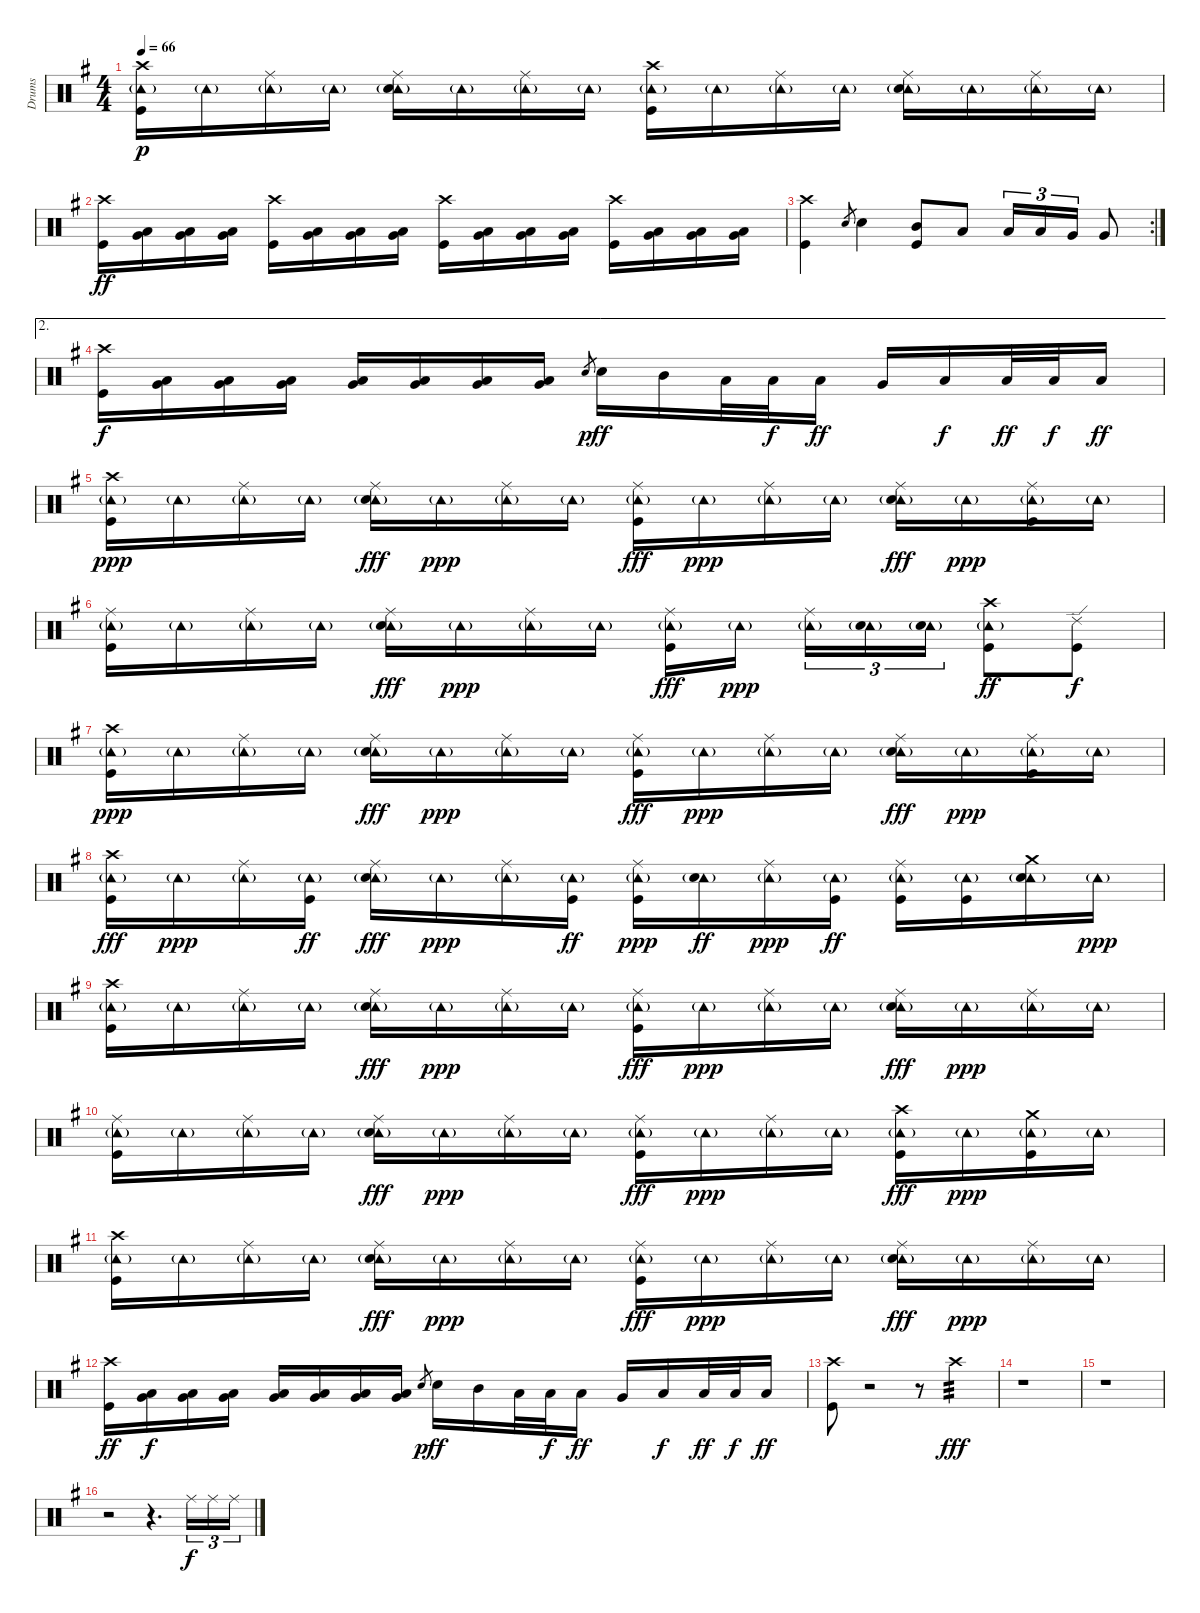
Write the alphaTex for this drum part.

\track ("Drums" "Drums") {instrument percussion}
\staff {score}
\articulation defaults
\ts (4 4)
\tempo 66
\clef neutral
\ks g
("Crash high (hit)" "Tambourine (hit)"{g} "Kick (hit)").16{dy p} "Tambourine (hit)"{g}.16 ("Ride (middle)" "Tambourine (hit)"{g}).16 "Tambourine (hit)"{g}.16 ("Ride (middle)" "Tambourine (hit)"{g} "Snare (hit) 2").16 "Tambourine (hit)"{g}.16 ("Ride (middle)" "Tambourine (hit)"{g}).16 "Tambourine (hit)"{g}.16 ("Crash high (hit)" "Tambourine (hit)"{g} "Kick (hit)").16 "Tambourine (hit)"{g}.16 ("Ride (middle)" "Tambourine (hit)"{g}).16 "Tambourine (hit)"{g}.16 ("Ride (middle)" "Tambourine (hit)"{g} "Snare (hit) 2").16 "Tambourine (hit)"{g}.16 ("Ride (middle)" "Tambourine (hit)"{g}).16 "Tambourine (hit)"{g}.16 |
("Crash high (hit)" "Kick (hit)").16{dy ff} ("Very Low Tom (hit)" "Low Floor Tom (hit)").16 ("Very Low Tom (hit)" "Low Floor Tom (hit)").16 ("Very Low Tom (hit)" "Low Floor Tom (hit)").16 ("Crash high (hit)" "Kick (hit)").16 ("Very Low Tom (hit)" "Low Floor Tom (hit)").16 ("Very Low Tom (hit)" "Low Floor Tom (hit)").16 ("Very Low Tom (hit)" "Low Floor Tom (hit)").16 ("Crash high (hit)" "Kick (hit)").16 ("Very Low Tom (hit)" "Low Floor Tom (hit)").16 ("Very Low Tom (hit)" "Low Floor Tom (hit)").16 ("Very Low Tom (hit)" "Low Floor Tom (hit)").16 ("Crash high (hit)" "Kick (hit)").16 ("Very Low Tom (hit)" "Low Floor Tom (hit)").16 ("Very Low Tom (hit)" "Low Floor Tom (hit)").16 ("Very Low Tom (hit)" "Low Floor Tom (hit)").16 |
\rc 2
("Crash high (hit)" "Kick (hit)").4 "Snare (hit) 2".8{gr} "Snare (hit) 2".4 ("Mid Tom (hit)" "Kick (hit)").8 "Low Tom (hit)".8 "Low Tom (hit)".16{tu (3 2)} "Low Tom (hit)".16{tu (3 2)} "Very Low Tom (hit)".16{tu (3 2)} "Very Low Tom (hit)".8 |
\ae 2
("Crash high (hit)" "Kick (hit)").16{dy f} ("Very Low Tom (hit)" "Low Floor Tom (hit)").16 ("Very Low Tom (hit)" "Low Floor Tom (hit)").16 ("Very Low Tom (hit)" "Low Floor Tom (hit)").16 ("Very Low Tom (hit)" "Low Floor Tom (hit)").16 ("Very Low Tom (hit)" "Low Floor Tom (hit)").16 ("Very Low Tom (hit)" "Low Floor Tom (hit)").16 ("Very Low Tom (hit)" "Low Floor Tom (hit)").16 "Snare (hit) 2".8{gr dy p} "Snare (hit) 2".16{dy ff} "Mid Tom (hit)".16 "Low Tom (hit)".32 "Low Tom (hit)".32{dy f} "Low Tom (hit)".16{dy ff} "Very Low Tom (hit)".16 "Low Floor Tom (hit)".16{dy f} "Low Floor Tom (hit)".32{dy ff} "Low Floor Tom (hit)".32{dy f} "Low Floor Tom (hit)".16{dy ff} |
("Crash high (hit)" "Tambourine (hit)"{g} "Kick (hit)").16{dy ppp} "Tambourine (hit)"{g}.16 ("Ride (middle)" "Tambourine (hit)"{g}).16 "Tambourine (hit)"{g}.16 ("Ride (middle)" "Tambourine (hit)"{g} "Snare (hit) 2").16{dy fff} "Tambourine (hit)"{g}.16{dy ppp} ("Ride (middle)" "Tambourine (hit)"{g}).16 "Tambourine (hit)"{g}.16 ("Ride (middle)" "Tambourine (hit)"{g} "Kick (hit)").16{dy fff} "Tambourine (hit)"{g}.16{dy ppp} ("Ride (middle)" "Tambourine (hit)"{g}).16 "Tambourine (hit)"{g}.16 ("Ride (middle)" "Tambourine (hit)"{g} "Snare (hit) 2").16{dy fff} "Tambourine (hit)"{g}.16{dy ppp} ("Ride (middle)" "Tambourine (hit)"{g} "Kick (hit)").16 "Tambourine (hit)"{g}.16 |
("Ride (middle)" "Tambourine (hit)"{g} "Kick (hit)").16 "Tambourine (hit)"{g}.16 ("Ride (middle)" "Tambourine (hit)"{g}).16 "Tambourine (hit)"{g}.16 ("Ride (middle)" "Tambourine (hit)"{g} "Snare (hit) 2").16{dy fff} "Tambourine (hit)"{g}.16{dy ppp} ("Ride (middle)" "Tambourine (hit)"{g}).16 "Tambourine (hit)"{g}.16 ("Ride (middle)" "Tambourine (hit)"{g} "Kick (hit)").16{dy fff} "Tambourine (hit)"{g}.16{dy ppp beam splitsecondary} ("Ride (middle)" "Tambourine (hit)"{g}).16{tu (3 2)} ("Tambourine (hit)"{g} "Snare (hit) 2").16{tu (3 2)} ("Tambourine (hit)"{g} "Snare (hit) 2").16{tu (3 2)} ("Crash high (hit)" "Tambourine (hit)"{g} "Kick (hit)").8{dy ff} ("Ride (edge) 2" "Kick (hit)").8{dy f} |
("Crash high (hit)" "Tambourine (hit)"{g} "Kick (hit)").16{dy ppp} "Tambourine (hit)"{g}.16 ("Ride (middle)" "Tambourine (hit)"{g}).16 "Tambourine (hit)"{g}.16 ("Ride (middle)" "Tambourine (hit)"{g} "Snare (hit) 2").16{dy fff} "Tambourine (hit)"{g}.16{dy ppp} ("Ride (middle)" "Tambourine (hit)"{g}).16 "Tambourine (hit)"{g}.16 ("Ride (middle)" "Tambourine (hit)"{g} "Kick (hit)").16{dy fff} "Tambourine (hit)"{g}.16{dy ppp} ("Ride (middle)" "Tambourine (hit)"{g}).16 "Tambourine (hit)"{g}.16 ("Ride (middle)" "Tambourine (hit)"{g} "Snare (hit) 2").16{dy fff} "Tambourine (hit)"{g}.16{dy ppp} ("Ride (middle)" "Tambourine (hit)"{g} "Kick (hit)").16 "Tambourine (hit)"{g}.16 |
("Crash high (hit)" "Tambourine (hit)"{g} "Kick (hit)").16{dy fff} "Tambourine (hit)"{g}.16{dy ppp} ("Ride (middle)" "Tambourine (hit)"{g}).16 ("Tambourine (hit)"{g} "Kick (hit)").16{dy ff} ("Ride (middle)" "Tambourine (hit)"{g} "Snare (hit) 2").16{dy fff} "Tambourine (hit)"{g}.16{dy ppp} ("Ride (middle)" "Tambourine (hit)"{g}).16 ("Tambourine (hit)"{g} "Kick (hit)").16{dy ff} ("Ride (middle)" "Tambourine (hit)"{g} "Kick (hit)").16{dy ppp} ("Tambourine (hit)"{g} "Snare (hit) 2").16{dy ff} ("Ride (middle)" "Tambourine (hit)"{g}).16{dy ppp} ("Tambourine (hit)"{g} "Kick (hit)").16{dy ff} ("Ride (middle)" "Tambourine (hit)"{g} "Kick (hit)").16 ("Tambourine (hit)"{g} "Kick (hit)").16 ("Crash medium (hit)" "Tambourine (hit)"{g} "Snare (hit) 2").16 "Tambourine (hit)"{g}.16{dy ppp} |
("Crash high (hit)" "Tambourine (hit)"{g} "Kick (hit)").16 "Tambourine (hit)"{g}.16 ("Ride (middle)" "Tambourine (hit)"{g}).16 "Tambourine (hit)"{g}.16 ("Ride (middle)" "Tambourine (hit)"{g} "Snare (hit) 2").16{dy fff} "Tambourine (hit)"{g}.16{dy ppp} ("Ride (middle)" "Tambourine (hit)"{g}).16 "Tambourine (hit)"{g}.16 ("Ride (middle)" "Tambourine (hit)"{g} "Kick (hit)").16{dy fff} "Tambourine (hit)"{g}.16{dy ppp} ("Ride (middle)" "Tambourine (hit)"{g}).16 "Tambourine (hit)"{g}.16 ("Ride (middle)" "Tambourine (hit)"{g} "Snare (hit) 2").16{dy fff} "Tambourine (hit)"{g}.16{dy ppp} ("Ride (middle)" "Tambourine (hit)"{g}).16 "Tambourine (hit)"{g}.16 |
("Ride (middle)" "Tambourine (hit)"{g} "Kick (hit)").16 "Tambourine (hit)"{g}.16 ("Ride (middle)" "Tambourine (hit)"{g}).16 "Tambourine (hit)"{g}.16 ("Ride (middle)" "Tambourine (hit)"{g} "Snare (hit) 2").16{dy fff} "Tambourine (hit)"{g}.16{dy ppp} ("Ride (middle)" "Tambourine (hit)"{g}).16 "Tambourine (hit)"{g}.16 ("Ride (middle)" "Tambourine (hit)"{g} "Kick (hit)").16{dy fff} "Tambourine (hit)"{g}.16{dy ppp} ("Ride (middle)" "Tambourine (hit)"{g}).16 "Tambourine (hit)"{g}.16 ("Crash high (hit)" "Tambourine (hit)"{g} "Kick (hit)").16{dy fff} "Tambourine (hit)"{g}.16{dy ppp} ("Crash medium (hit)" "Tambourine (hit)"{g} "Kick (hit)").16 "Tambourine (hit)"{g}.16 |
("Crash high (hit)" "Tambourine (hit)"{g} "Kick (hit)").16 "Tambourine (hit)"{g}.16 ("Ride (middle)" "Tambourine (hit)"{g}).16 "Tambourine (hit)"{g}.16 ("Ride (middle)" "Tambourine (hit)"{g} "Snare (hit) 2").16{dy fff} "Tambourine (hit)"{g}.16{dy ppp} ("Ride (middle)" "Tambourine (hit)"{g}).16 "Tambourine (hit)"{g}.16 ("Ride (middle)" "Tambourine (hit)"{g} "Kick (hit)").16{dy fff} "Tambourine (hit)"{g}.16{dy ppp} ("Ride (middle)" "Tambourine (hit)"{g}).16 "Tambourine (hit)"{g}.16 ("Ride (middle)" "Tambourine (hit)"{g} "Snare (hit) 2").16{dy fff} "Tambourine (hit)"{g}.16{dy ppp} ("Ride (middle)" "Tambourine (hit)"{g}).16 "Tambourine (hit)"{g}.16 |
("Crash high (hit)" "Kick (hit)").16{dy ff} ("Very Low Tom (hit)" "Low Floor Tom (hit)").16{dy f} ("Very Low Tom (hit)" "Low Floor Tom (hit)").16 ("Very Low Tom (hit)" "Low Floor Tom (hit)").16 ("Very Low Tom (hit)" "Low Floor Tom (hit)").16 ("Very Low Tom (hit)" "Low Floor Tom (hit)").16 ("Very Low Tom (hit)" "Low Floor Tom (hit)").16 ("Very Low Tom (hit)" "Low Floor Tom (hit)").16 "Snare (hit) 2".8{gr dy p} "Snare (hit) 2".16{dy ff} "Mid Tom (hit)".16 "Low Tom (hit)".32 "Low Tom (hit)".32{dy f} "Low Tom (hit)".16{dy ff} "Very Low Tom (hit)".16 "Low Floor Tom (hit)".16{dy f} "Low Floor Tom (hit)".32{dy ff} "Low Floor Tom (hit)".32{dy f} "Low Floor Tom (hit)".16{dy ff} |
("Crash high (hit)" "Kick (hit)").8{volume 0} r.2 r.8 "Crash high (hit)".4{tp 3 dy fff volume 13} |
r.1 |
r.1 |
r.2 r.4{d} "Ride (middle)".16{tu (3 2) dy f} "Ride (middle)".16{tu (3 2)} "Ride (middle)".16{tu (3 2)}
